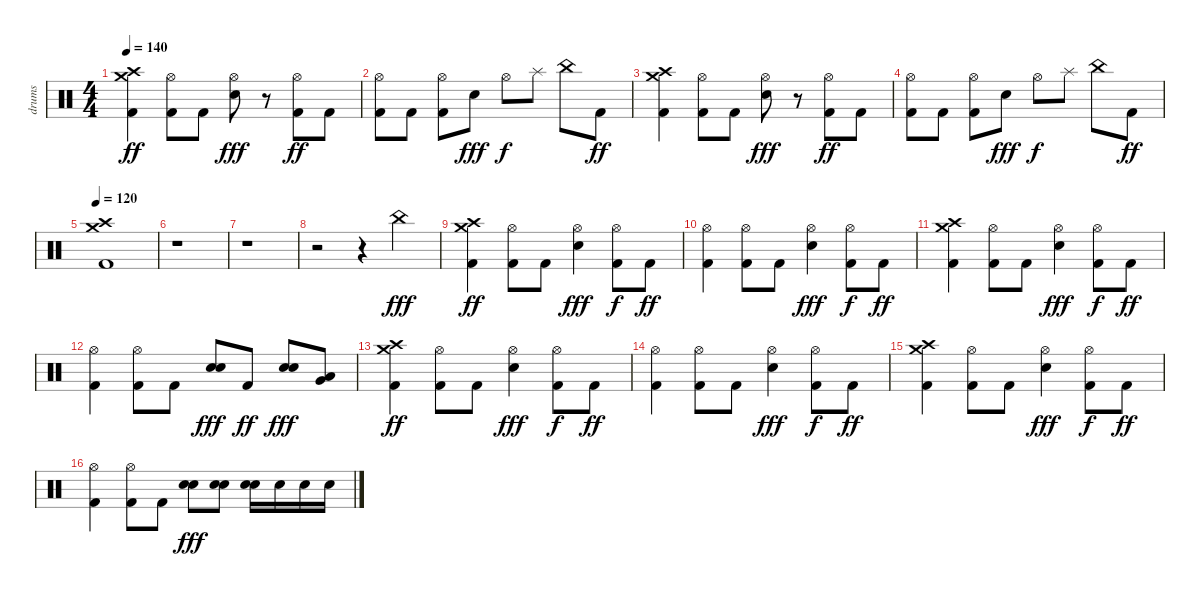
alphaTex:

\track ("drums" "drums") {instrument percussion}
\staff {score}
\articulation defaults
\ts (4 4)
\tempo 140
\clef neutral
\ks c
("Crash medium (hit)" "Crash high (hit)" "Kick (hit) 2").4{dy ff} ("Hi-Hat (open)" "Kick (hit) 2").8 "Kick (hit) 2".8 ("Hi-Hat (open)" "Electric Snare (hit)").8{dy fff} r.8 ("Hi-Hat (open)" "Kick (hit) 2").8{dy ff} "Kick (hit) 2".8 |
("Hi-Hat (open)" "Kick (hit) 2").8 "Kick (hit) 2".8 ("Hi-Hat (open)" "Kick (hit) 2").8 "Electric Snare (hit)".8{dy fff} "Hi-Hat (open)".8{dy f} "Splash (hit)".8 "China (hit)".8 "Kick (hit) 2".8{dy ff} |
("Crash medium (hit)" "Crash high (hit)" "Kick (hit) 2").4 ("Hi-Hat (open)" "Kick (hit) 2").8 "Kick (hit) 2".8 ("Hi-Hat (open)" "Electric Snare (hit)").8{dy fff} r.8 ("Hi-Hat (open)" "Kick (hit) 2").8{dy ff} "Kick (hit) 2".8 |
("Hi-Hat (open)" "Kick (hit) 2").8 "Kick (hit) 2".8 ("Hi-Hat (open)" "Kick (hit) 2").8 "Electric Snare (hit)".8{dy fff} "Hi-Hat (open)".8{dy f} "Splash (hit)".8 "China (hit)".8 "Kick (hit) 2".8{dy ff} |
\tempo 120
("Crash medium (hit)" "Crash high (hit)" "Kick (hit) 2").1 |
r.1 |
r.1 |
r.2 r.4 "China (hit)".4{dy fff} |
("Crash medium (hit)" "Crash high (hit)" "Kick (hit) 2").4{dy ff} ("Hi-Hat (open)" "Kick (hit) 2").8 "Kick (hit) 2".8 ("Hi-Hat (open)" "Electric Snare (hit)").4{dy fff} ("Hi-Hat (open)" "Kick (hit) 2").8{dy f} "Kick (hit) 2".8{dy ff} |
("Hi-Hat (open)" "Kick (hit) 2").4 ("Hi-Hat (open)" "Kick (hit) 2").8 "Kick (hit) 2".8 ("Hi-Hat (open)" "Electric Snare (hit)").4{dy fff} ("Hi-Hat (open)" "Kick (hit) 2").8{dy f} "Kick (hit) 2".8{dy ff} |
("Crash medium (hit)" "Crash high (hit)" "Kick (hit) 2").4 ("Hi-Hat (open)" "Kick (hit) 2").8 "Kick (hit) 2".8 ("Hi-Hat (open)" "Electric Snare (hit)").4{dy fff} ("Hi-Hat (open)" "Kick (hit) 2").8{dy f} "Kick (hit) 2".8{dy ff} |
("Hi-Hat (open)" "Kick (hit) 2").4 ("Hi-Hat (open)" "Kick (hit) 2").8 "Kick (hit) 2".8 ("Electric Snare (hit)" "Electric Snare (hit)").8{dy fff} "Kick (hit) 2".8{dy ff} ("Electric Snare (hit)" "Electric Snare (hit)").8{dy fff} ("Very Low Tom (hit)" "Low Floor Tom (hit)").8 |
("Crash medium (hit)" "Crash high (hit)" "Kick (hit) 2").4{dy ff} ("Hi-Hat (open)" "Kick (hit) 2").8 "Kick (hit) 2".8 ("Hi-Hat (open)" "Electric Snare (hit)").4{dy fff} ("Hi-Hat (open)" "Kick (hit) 2").8{dy f} "Kick (hit) 2".8{dy ff} |
("Hi-Hat (open)" "Kick (hit) 2").4 ("Hi-Hat (open)" "Kick (hit) 2").8 "Kick (hit) 2".8 ("Hi-Hat (open)" "Electric Snare (hit)").4{dy fff} ("Hi-Hat (open)" "Kick (hit) 2").8{dy f} "Kick (hit) 2".8{dy ff} |
("Crash medium (hit)" "Crash high (hit)" "Kick (hit) 2").4 ("Hi-Hat (open)" "Kick (hit) 2").8 "Kick (hit) 2".8 ("Hi-Hat (open)" "Electric Snare (hit)").4{dy fff} ("Hi-Hat (open)" "Kick (hit) 2").8{dy f} "Kick (hit) 2".8{dy ff} |
("Hi-Hat (open)" "Kick (hit) 2").4 ("Hi-Hat (open)" "Kick (hit) 2").8 "Kick (hit) 2".8 ("Electric Snare (hit)" "Electric Snare (hit)").8{dy fff} ("Electric Snare (hit)" "Electric Snare (hit)").8 ("Electric Snare (hit)" "Electric Snare (hit)").16 "Electric Snare (hit)".16 "Electric Snare (hit)".16 "Electric Snare (hit)".16
